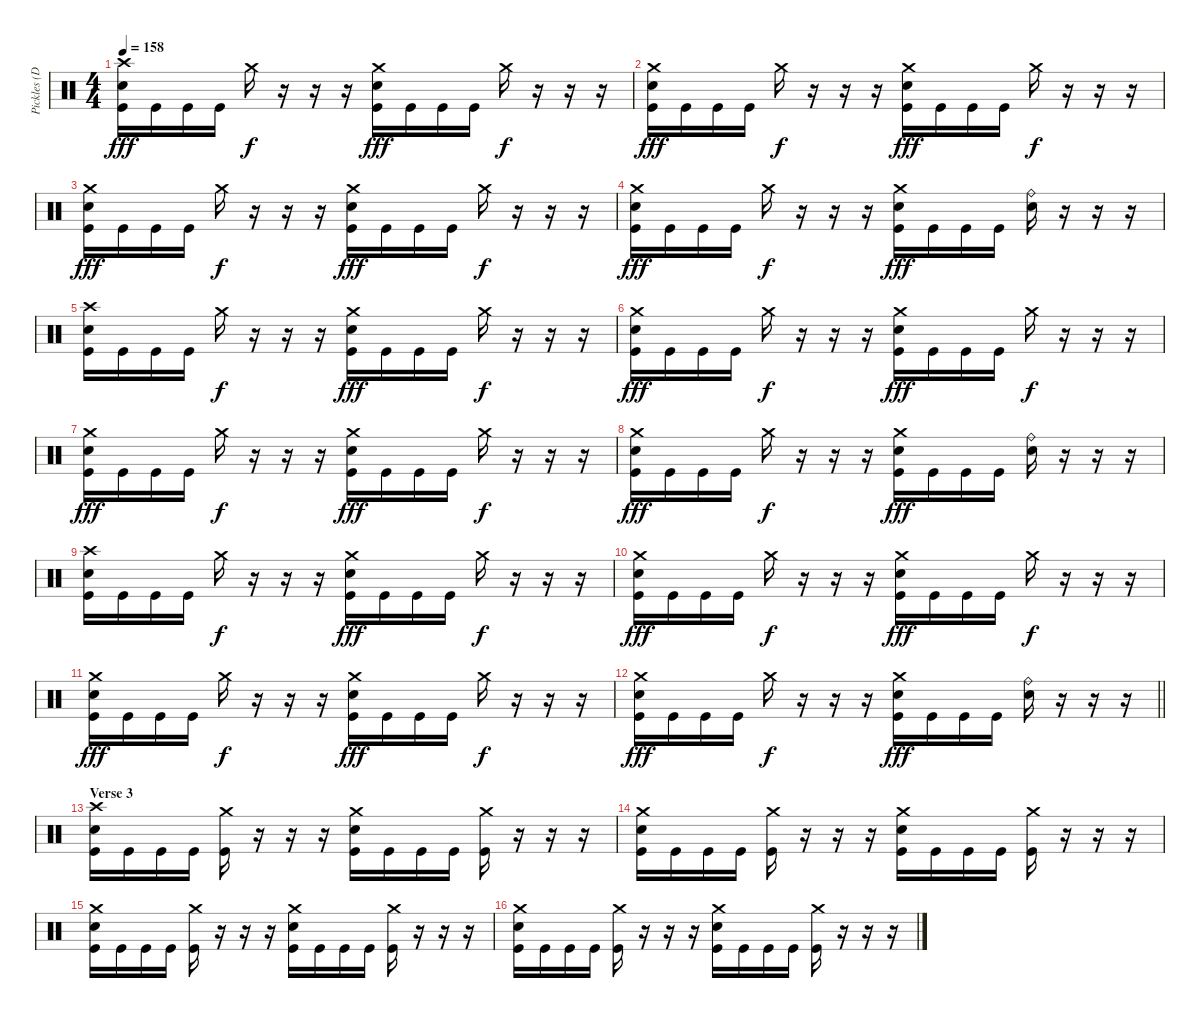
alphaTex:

\track ("Pickles (Drums)" "Pickles (D") {instrument percussion}
\staff {score}
\articulation defaults
\ts (4 4)
\tempo 158
\clef neutral
\ks c
("Crash high (hit)" "Snare (hit) 2" "Kick (hit)").16{dy fff} "Kick (hit)".16 "Kick (hit)".16 "Kick (hit)".16 "Crash medium (hit)".16{dy f} r.16 r.16 r.16 ("Crash medium (hit)" "Snare (hit) 2" "Kick (hit)").16{dy fff} "Kick (hit)".16 "Kick (hit)".16 "Kick (hit)".16 "Crash medium (hit)".16{dy f} r.16 r.16 r.16 |
("Crash medium (hit)" "Snare (hit) 2" "Kick (hit)").16{dy fff} "Kick (hit)".16 "Kick (hit)".16 "Kick (hit)".16 "Crash medium (hit)".16{dy f} r.16 r.16 r.16 ("Crash medium (hit)" "Snare (hit) 2" "Kick (hit)").16{dy fff} "Kick (hit)".16 "Kick (hit)".16 "Kick (hit)".16 "Crash medium (hit)".16{dy f} r.16 r.16 r.16 |
("Crash medium (hit)" "Snare (hit) 2" "Kick (hit)").16{dy fff} "Kick (hit)".16 "Kick (hit)".16 "Kick (hit)".16 "Crash medium (hit)".16{dy f} r.16 r.16 r.16 ("Crash medium (hit)" "Snare (hit) 2" "Kick (hit)").16{dy fff} "Kick (hit)".16 "Kick (hit)".16 "Kick (hit)".16 "Crash medium (hit)".16{dy f} r.16 r.16 r.16 |
("Crash medium (hit)" "Snare (hit) 2" "Kick (hit)").16{dy fff} "Kick (hit)".16 "Kick (hit)".16 "Kick (hit)".16 "Crash medium (hit)".16{dy f} r.16 r.16 r.16 ("Crash medium (hit)" "Snare (hit) 2" "Kick (hit)").16{dy fff} "Kick (hit)".16 "Kick (hit)".16 "Kick (hit)".16 ("Ride (bell)" "Snare (hit) 2").16 r.16 r.16 r.16 |
("Crash high (hit)" "Snare (hit) 2" "Kick (hit)").16 "Kick (hit)".16 "Kick (hit)".16 "Kick (hit)".16 "Crash medium (hit)".16{dy f} r.16 r.16 r.16 ("Crash medium (hit)" "Snare (hit) 2" "Kick (hit)").16{dy fff} "Kick (hit)".16 "Kick (hit)".16 "Kick (hit)".16 "Crash medium (hit)".16{dy f} r.16 r.16 r.16 |
("Crash medium (hit)" "Snare (hit) 2" "Kick (hit)").16{dy fff} "Kick (hit)".16 "Kick (hit)".16 "Kick (hit)".16 "Crash medium (hit)".16{dy f} r.16 r.16 r.16 ("Crash medium (hit)" "Snare (hit) 2" "Kick (hit)").16{dy fff} "Kick (hit)".16 "Kick (hit)".16 "Kick (hit)".16 "Crash medium (hit)".16{dy f} r.16 r.16 r.16 |
("Crash medium (hit)" "Snare (hit) 2" "Kick (hit)").16{dy fff} "Kick (hit)".16 "Kick (hit)".16 "Kick (hit)".16 "Crash medium (hit)".16{dy f} r.16 r.16 r.16 ("Crash medium (hit)" "Snare (hit) 2" "Kick (hit)").16{dy fff} "Kick (hit)".16 "Kick (hit)".16 "Kick (hit)".16 "Crash medium (hit)".16{dy f} r.16 r.16 r.16 |
("Crash medium (hit)" "Snare (hit) 2" "Kick (hit)").16{dy fff} "Kick (hit)".16 "Kick (hit)".16 "Kick (hit)".16 "Crash medium (hit)".16{dy f} r.16 r.16 r.16 ("Crash medium (hit)" "Snare (hit) 2" "Kick (hit)").16{dy fff} "Kick (hit)".16 "Kick (hit)".16 "Kick (hit)".16 ("Ride (bell)" "Snare (hit) 2").16 r.16 r.16 r.16 |
("Crash high (hit)" "Snare (hit) 2" "Kick (hit)").16 "Kick (hit)".16 "Kick (hit)".16 "Kick (hit)".16 "Crash medium (hit)".16{dy f} r.16 r.16 r.16 ("Crash medium (hit)" "Snare (hit) 2" "Kick (hit)").16{dy fff} "Kick (hit)".16 "Kick (hit)".16 "Kick (hit)".16 "Crash medium (hit)".16{dy f} r.16 r.16 r.16 |
("Crash medium (hit)" "Snare (hit) 2" "Kick (hit)").16{dy fff} "Kick (hit)".16 "Kick (hit)".16 "Kick (hit)".16 "Crash medium (hit)".16{dy f} r.16 r.16 r.16 ("Crash medium (hit)" "Snare (hit) 2" "Kick (hit)").16{dy fff} "Kick (hit)".16 "Kick (hit)".16 "Kick (hit)".16 "Crash medium (hit)".16{dy f} r.16 r.16 r.16 |
("Crash medium (hit)" "Snare (hit) 2" "Kick (hit)").16{dy fff} "Kick (hit)".16 "Kick (hit)".16 "Kick (hit)".16 "Crash medium (hit)".16{dy f} r.16 r.16 r.16 ("Crash medium (hit)" "Snare (hit) 2" "Kick (hit)").16{dy fff} "Kick (hit)".16 "Kick (hit)".16 "Kick (hit)".16 "Crash medium (hit)".16{dy f} r.16 r.16 r.16 |
\barLineRight lightlight
("Crash medium (hit)" "Snare (hit) 2" "Kick (hit)").16{dy fff} "Kick (hit)".16 "Kick (hit)".16 "Kick (hit)".16 "Crash medium (hit)".16{dy f} r.16 r.16 r.16 ("Crash medium (hit)" "Snare (hit) 2" "Kick (hit)").16{dy fff} "Kick (hit)".16 "Kick (hit)".16 "Kick (hit)".16 ("Ride (bell)" "Snare (hit) 2").16 r.16 r.16 r.16 |
\section ("" "Verse 3")
("Crash high (hit)" "Snare (hit) 2" "Kick (hit)").16 "Kick (hit)".16 "Kick (hit)".16 "Kick (hit)".16 ("Crash medium (hit)" "Kick (hit)").16 r.16 r.16 r.16 ("Crash medium (hit)" "Snare (hit) 2" "Kick (hit)").16 "Kick (hit)".16 "Kick (hit)".16 "Kick (hit)".16 ("Crash medium (hit)" "Kick (hit)").16 r.16 r.16 r.16 |
("Crash medium (hit)" "Snare (hit) 2" "Kick (hit)").16 "Kick (hit)".16 "Kick (hit)".16 "Kick (hit)".16 ("Crash medium (hit)" "Kick (hit)").16 r.16 r.16 r.16 ("Crash medium (hit)" "Snare (hit) 2" "Kick (hit)").16 "Kick (hit)".16 "Kick (hit)".16 "Kick (hit)".16 ("Crash medium (hit)" "Kick (hit)").16 r.16 r.16 r.16 |
("Crash medium (hit)" "Snare (hit) 2" "Kick (hit)").16 "Kick (hit)".16 "Kick (hit)".16 "Kick (hit)".16 ("Crash medium (hit)" "Kick (hit)").16 r.16 r.16 r.16 ("Crash medium (hit)" "Snare (hit) 2" "Kick (hit)").16 "Kick (hit)".16 "Kick (hit)".16 "Kick (hit)".16 ("Crash medium (hit)" "Kick (hit)").16 r.16 r.16 r.16 |
("Crash medium (hit)" "Snare (hit) 2" "Kick (hit)").16 "Kick (hit)".16 "Kick (hit)".16 "Kick (hit)".16 ("Crash medium (hit)" "Kick (hit)").16 r.16 r.16 r.16 ("Crash medium (hit)" "Snare (hit) 2" "Kick (hit)").16 "Kick (hit)".16 "Kick (hit)".16 "Kick (hit)".16 ("Crash medium (hit)" "Kick (hit)").16 r.16 r.16 r.16
